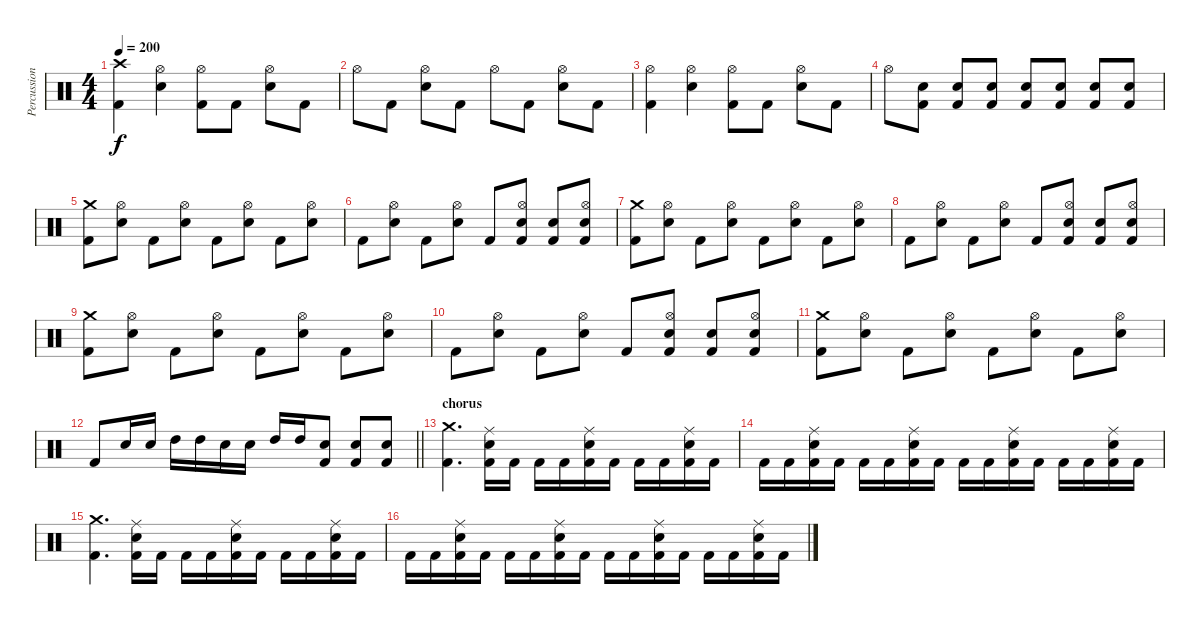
\track ("Percussion" "Percussion") {instrument percussion}
\staff {score}
\articulation defaults
\ts (4 4)
\tempo 200
\clef neutral
\ks c
("Crash high (hit)" "Kick (hit) 2").4{dy f} ("Hi-Hat (open)" "Electric Snare (hit)").4 ("Hi-Hat (open)" "Kick (hit) 2").8 "Kick (hit) 2".8 ("Hi-Hat (open)" "Electric Snare (hit)").8 "Kick (hit) 2".8 |
"Hi-Hat (open)".8 "Kick (hit) 2".8 ("Hi-Hat (open)" "Electric Snare (hit)").8 "Kick (hit) 2".8 "Hi-Hat (open)".8 "Kick (hit) 2".8 ("Hi-Hat (open)" "Electric Snare (hit)").8 "Kick (hit) 2".8 |
("Hi-Hat (open)" "Kick (hit) 2").4 ("Hi-Hat (open)" "Electric Snare (hit)").4 ("Hi-Hat (open)" "Kick (hit) 2").8 "Kick (hit) 2".8 ("Hi-Hat (open)" "Electric Snare (hit)").8 "Kick (hit) 2".8 |
"Hi-Hat (open)".8 ("Electric Snare (hit)" "Kick (hit) 2").8 ("Electric Snare (hit)" "Kick (hit) 2").8 ("Electric Snare (hit)" "Kick (hit) 2").8 ("Electric Snare (hit)" "Kick (hit) 2").8 ("Electric Snare (hit)" "Kick (hit) 2").8 ("Electric Snare (hit)" "Kick (hit) 2").8 ("Electric Snare (hit)" "Kick (hit) 2").8 |
("Crash medium (hit)" "Kick (hit) 2").8 ("Hi-Hat (open)" "Electric Snare (hit)").8 "Kick (hit) 2".8 ("Hi-Hat (open)" "Electric Snare (hit)").8 "Kick (hit) 2".8 ("Hi-Hat (open)" "Electric Snare (hit)").8 "Kick (hit) 2".8 ("Hi-Hat (open)" "Electric Snare (hit)").8 |
"Kick (hit) 2".8 ("Hi-Hat (open)" "Electric Snare (hit)").8 "Kick (hit) 2".8 ("Hi-Hat (open)" "Electric Snare (hit)").8 "Kick (hit) 2".8 ("Hi-Hat (open)" "Electric Snare (hit)" "Kick (hit) 2").8 ("Electric Snare (hit)" "Kick (hit) 2").8 ("Hi-Hat (open)" "Electric Snare (hit)" "Kick (hit) 2").8 |
("Crash medium (hit)" "Kick (hit) 2").8 ("Hi-Hat (open)" "Electric Snare (hit)").8 "Kick (hit) 2".8 ("Hi-Hat (open)" "Electric Snare (hit)").8 "Kick (hit) 2".8 ("Hi-Hat (open)" "Electric Snare (hit)").8 "Kick (hit) 2".8 ("Hi-Hat (open)" "Electric Snare (hit)").8 |
"Kick (hit) 2".8 ("Hi-Hat (open)" "Electric Snare (hit)").8 "Kick (hit) 2".8 ("Hi-Hat (open)" "Electric Snare (hit)").8 "Kick (hit) 2".8 ("Hi-Hat (open)" "Electric Snare (hit)" "Kick (hit) 2").8 ("Electric Snare (hit)" "Kick (hit) 2").8 ("Hi-Hat (open)" "Electric Snare (hit)" "Kick (hit) 2").8 |
("Crash medium (hit)" "Kick (hit) 2").8 ("Hi-Hat (open)" "Electric Snare (hit)").8 "Kick (hit) 2".8 ("Hi-Hat (open)" "Electric Snare (hit)").8 "Kick (hit) 2".8 ("Hi-Hat (open)" "Electric Snare (hit)").8 "Kick (hit) 2".8 ("Hi-Hat (open)" "Electric Snare (hit)").8 |
"Kick (hit) 2".8 ("Hi-Hat (open)" "Electric Snare (hit)").8 "Kick (hit) 2".8 ("Hi-Hat (open)" "Electric Snare (hit)").8 "Kick (hit) 2".8 ("Hi-Hat (open)" "Electric Snare (hit)" "Kick (hit) 2").8 ("Electric Snare (hit)" "Kick (hit) 2").8 ("Hi-Hat (open)" "Electric Snare (hit)" "Kick (hit) 2").8 |
("Crash medium (hit)" "Kick (hit) 2").8 ("Hi-Hat (open)" "Electric Snare (hit)").8 "Kick (hit) 2".8 ("Hi-Hat (open)" "Electric Snare (hit)").8 "Kick (hit) 2".8 ("Hi-Hat (open)" "Electric Snare (hit)").8 "Kick (hit) 2".8 ("Hi-Hat (open)" "Electric Snare (hit)").8 |
\barLineRight lightlight "Kick (hit) 2".8 "Electric Snare (hit)".16 "Electric Snare (hit)".16 "High Tom (hit)".16 "High Tom (hit)".16 "Electric Snare (hit)".16 "Electric Snare (hit)".16 "High Tom (hit)".16 "High Tom (hit)".16
("Electric Snare (hit)" "Kick (hit) 2").8 ("Electric Snare (hit)" "Kick (hit) 2").8 ("Electric Snare (hit)" "Kick (hit) 2").8 |
\section ("" "chorus")
("Crash medium (hit)" "Kick (hit) 2").4{d} ("Ride (middle)" "Electric Snare (hit)" "Kick (hit) 2").16 "Kick (hit) 2".16 "Kick (hit) 2".16 "Kick (hit) 2".16 ("Ride (middle)" "Electric Snare (hit)" "Kick (hit) 2").16 "Kick (hit) 2".16 "Kick (hit) 2".16 "Kick (hit) 2".16 ("Ride (middle)" "Electric Snare (hit)" "Kick (hit) 2").16 "Kick (hit) 2".16 |
"Kick (hit) 2".16 "Kick (hit) 2".16 ("Ride (middle)" "Electric Snare (hit)" "Kick (hit) 2").16 "Kick (hit) 2".16 "Kick (hit) 2".16 "Kick (hit) 2".16 ("Ride (middle)" "Electric Snare (hit)" "Kick (hit) 2").16 "Kick (hit) 2".16 "Kick (hit) 2".16 "Kick (hit) 2".16 ("Ride (middle)" "Electric Snare (hit)" "Kick (hit) 2").16 "Kick (hit) 2".16 "Kick (hit) 2".16 "Kick (hit) 2".16 ("Ride (middle)" "Electric Snare (hit)" "Kick (hit) 2").16 "Kick (hit) 2".16 |
("Crash medium (hit)" "Kick (hit) 2").4{d} ("Ride (middle)" "Electric Snare (hit)" "Kick (hit) 2").16 "Kick (hit) 2".16 "Kick (hit) 2".16 "Kick (hit) 2".16 ("Ride (middle)" "Electric Snare (hit)" "Kick (hit) 2").16 "Kick (hit) 2".16 "Kick (hit) 2".16 "Kick (hit) 2".16 ("Ride (middle)" "Electric Snare (hit)" "Kick (hit) 2").16 "Kick (hit) 2".16 |
"Kick (hit) 2".16 "Kick (hit) 2".16 ("Ride (middle)" "Electric Snare (hit)" "Kick (hit) 2").16 "Kick (hit) 2".16 "Kick (hit) 2".16 "Kick (hit) 2".16 ("Ride (middle)" "Electric Snare (hit)" "Kick (hit) 2").16 "Kick (hit) 2".16 "Kick (hit) 2".16 "Kick (hit) 2".16 ("Ride (middle)" "Electric Snare (hit)" "Kick (hit) 2").16 "Kick (hit) 2".16 "Kick (hit) 2".16 "Kick (hit) 2".16 ("Ride (middle)" "Electric Snare (hit)" "Kick (hit) 2").16 "Kick (hit) 2".16
